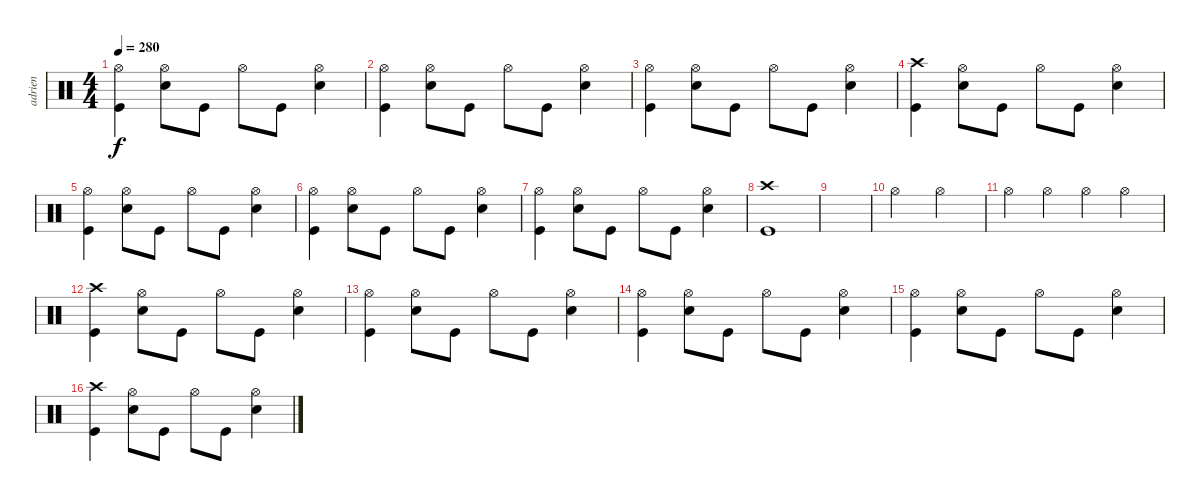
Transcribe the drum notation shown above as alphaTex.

\track ("adrien" "adrien") {instrument percussion}
\staff {score}
\articulation defaults
\ts (4 4)
\tempo 280
\clef neutral
\ks c
("Hi-Hat (open)" "Kick (hit)").4{dy f} ("Hi-Hat (open)" "Snare (hit) 2").8 "Kick (hit)".8 "Hi-Hat (open)".8 "Kick (hit)".8 ("Hi-Hat (open)" "Snare (hit) 2").4 |
("Hi-Hat (open)" "Kick (hit)").4 ("Hi-Hat (open)" "Snare (hit) 2").8 "Kick (hit)".8 "Hi-Hat (open)".8 "Kick (hit)".8 ("Hi-Hat (open)" "Snare (hit) 2").4 |
("Hi-Hat (open)" "Kick (hit)").4 ("Hi-Hat (open)" "Snare (hit) 2").8 "Kick (hit)".8 "Hi-Hat (open)".8 "Kick (hit)".8 ("Hi-Hat (open)" "Snare (hit) 2").4 |
("Crash high (hit)" "Kick (hit)").4 ("Hi-Hat (open)" "Snare (hit) 2").8 "Kick (hit)".8 "Hi-Hat (open)".8 "Kick (hit)".8 ("Hi-Hat (open)" "Snare (hit) 2").4 |
("Hi-Hat (open)" "Kick (hit)").4 ("Hi-Hat (open)" "Snare (hit) 2").8 "Kick (hit)".8 "Hi-Hat (open)".8 "Kick (hit)".8 ("Hi-Hat (open)" "Snare (hit) 2").4 |
("Hi-Hat (open)" "Kick (hit)").4 ("Hi-Hat (open)" "Snare (hit) 2").8 "Kick (hit)".8 "Hi-Hat (open)".8 "Kick (hit)".8 ("Hi-Hat (open)" "Snare (hit) 2").4 |
("Hi-Hat (open)" "Kick (hit)").4 ("Hi-Hat (open)" "Snare (hit) 2").8 "Kick (hit)".8 "Hi-Hat (open)".8 "Kick (hit)".8 ("Hi-Hat (open)" "Snare (hit) 2").4 |
("Crash high (hit)" "Kick (hit)").1 |
|
"Hi-Hat (open)".2 "Hi-Hat (open)".2 |
"Hi-Hat (open)".4 "Hi-Hat (open)".4 "Hi-Hat (open)".4 "Hi-Hat (open)".4 |
("Crash high (hit)" "Kick (hit)").4 ("Hi-Hat (open)" "Snare (hit) 2").8 "Kick (hit)".8 "Hi-Hat (open)".8 "Kick (hit)".8 ("Hi-Hat (open)" "Snare (hit) 2").4 |
("Hi-Hat (open)" "Kick (hit)").4 ("Hi-Hat (open)" "Snare (hit) 2").8 "Kick (hit)".8 "Hi-Hat (open)".8 "Kick (hit)".8 ("Hi-Hat (open)" "Snare (hit) 2").4 |
("Hi-Hat (open)" "Kick (hit)").4 ("Hi-Hat (open)" "Snare (hit) 2").8 "Kick (hit)".8 "Hi-Hat (open)".8 "Kick (hit)".8 ("Hi-Hat (open)" "Snare (hit) 2").4 |
("Hi-Hat (open)" "Kick (hit)").4 ("Hi-Hat (open)" "Snare (hit) 2").8 "Kick (hit)".8 "Hi-Hat (open)".8 "Kick (hit)".8 ("Hi-Hat (open)" "Snare (hit) 2").4 |
("Crash high (hit)" "Kick (hit)").4 ("Hi-Hat (open)" "Snare (hit) 2").8 "Kick (hit)".8 "Hi-Hat (open)".8 "Kick (hit)".8 ("Hi-Hat (open)" "Snare (hit) 2").4
